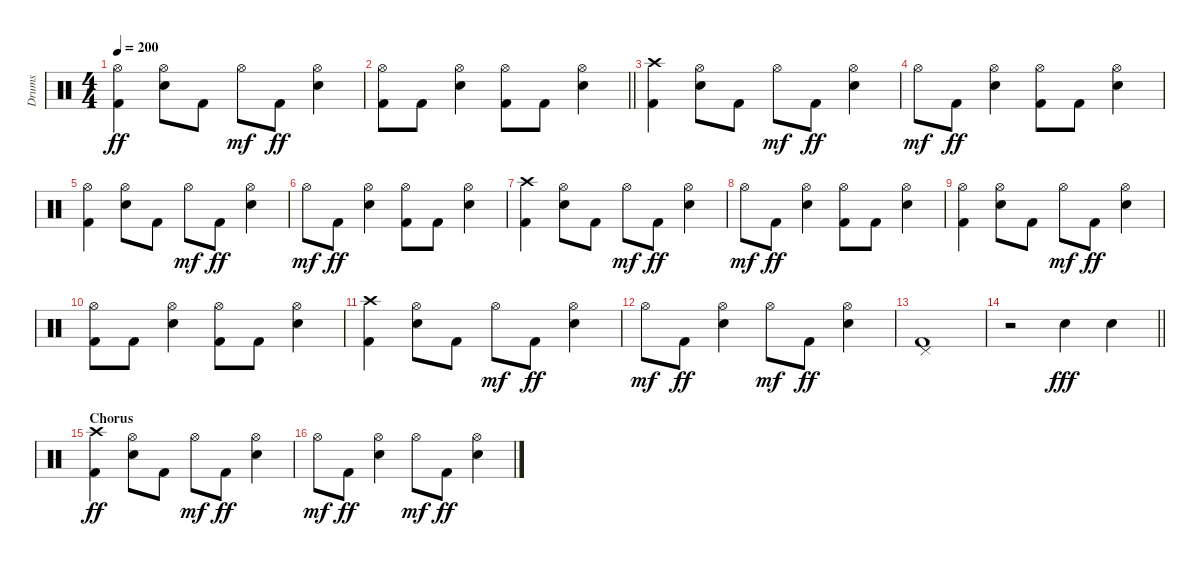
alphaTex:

\track ("Drums" "Drums") {instrument percussion}
\staff {score}
\articulation defaults
\ts (4 4)
\tempo 200
\clef neutral
\ks c
("Hi-Hat (open)" "Kick (hit) 2").4{dy ff} ("Hi-Hat (open)" "Electric Snare (hit)").8 "Kick (hit) 2".8 "Hi-Hat (open)".8{dy mf} "Kick (hit) 2".8{dy ff} ("Hi-Hat (open)" "Electric Snare (hit)").4 |
\barLineRight lightlight
("Hi-Hat (open)" "Kick (hit) 2").8 "Kick (hit) 2".8 ("Hi-Hat (open)" "Electric Snare (hit)").4 ("Hi-Hat (open)" "Kick (hit) 2").8 "Kick (hit) 2".8 ("Hi-Hat (open)" "Electric Snare (hit)").4 |
("Crash high (hit)" "Kick (hit) 2").4 ("Hi-Hat (open)" "Electric Snare (hit)").8 "Kick (hit) 2".8 "Hi-Hat (open)".8{dy mf} "Kick (hit) 2".8{dy ff} ("Hi-Hat (open)" "Electric Snare (hit)").4 |
"Hi-Hat (open)".8{dy mf} "Kick (hit) 2".8{dy ff} ("Hi-Hat (open)" "Electric Snare (hit)").4 ("Hi-Hat (open)" "Kick (hit) 2").8 "Kick (hit) 2".8 ("Hi-Hat (open)" "Electric Snare (hit)").4 |
("Hi-Hat (open)" "Kick (hit) 2").4 ("Hi-Hat (open)" "Electric Snare (hit)").8 "Kick (hit) 2".8 "Hi-Hat (open)".8{dy mf} "Kick (hit) 2".8{dy ff} ("Hi-Hat (open)" "Electric Snare (hit)").4 |
"Hi-Hat (open)".8{dy mf} "Kick (hit) 2".8{dy ff} ("Hi-Hat (open)" "Electric Snare (hit)").4 ("Hi-Hat (open)" "Kick (hit) 2").8 "Kick (hit) 2".8 ("Hi-Hat (open)" "Electric Snare (hit)").4 |
("Crash high (hit)" "Kick (hit) 2").4 ("Hi-Hat (open)" "Electric Snare (hit)").8 "Kick (hit) 2".8 "Hi-Hat (open)".8{dy mf} "Kick (hit) 2".8{dy ff} ("Hi-Hat (open)" "Electric Snare (hit)").4 |
"Hi-Hat (open)".8{dy mf} "Kick (hit) 2".8{dy ff} ("Hi-Hat (open)" "Electric Snare (hit)").4 ("Hi-Hat (open)" "Kick (hit) 2").8 "Kick (hit) 2".8 ("Hi-Hat (open)" "Electric Snare (hit)").4 |
("Hi-Hat (open)" "Kick (hit) 2").4 ("Hi-Hat (open)" "Electric Snare (hit)").8 "Kick (hit) 2".8 "Hi-Hat (open)".8{dy mf} "Kick (hit) 2".8{dy ff} ("Hi-Hat (open)" "Electric Snare (hit)").4 |
("Hi-Hat (open)" "Kick (hit) 2").8 "Kick (hit) 2".8 ("Hi-Hat (open)" "Electric Snare (hit)").4 ("Hi-Hat (open)" "Kick (hit) 2").8 "Kick (hit) 2".8 ("Hi-Hat (open)" "Electric Snare (hit)").4 |
("Crash high (hit)" "Kick (hit) 2").4 ("Hi-Hat (open)" "Electric Snare (hit)").8 "Kick (hit) 2".8 "Hi-Hat (open)".8{dy mf} "Kick (hit) 2".8{dy ff} ("Hi-Hat (open)" "Electric Snare (hit)").4 |
"Hi-Hat (open)".8{dy mf} "Kick (hit) 2".8{dy ff} ("Hi-Hat (open)" "Electric Snare (hit)").4 "Hi-Hat (open)".8{dy mf} "Kick (hit) 2".8{dy ff} ("Hi-Hat (open)" "Electric Snare (hit)").4 |
("Pedal Hi-Hat (hit)" "Kick (hit) 2").1 |
\barLineRight lightlight
r.2 "Electric Snare (hit)".4{dy fff} "Electric Snare (hit)".4 |
\section ("" "Chorus")
("Crash high (hit)" "Kick (hit) 2").4{dy ff} ("Hi-Hat (open)" "Electric Snare (hit)").8 "Kick (hit) 2".8 "Hi-Hat (open)".8{dy mf} "Kick (hit) 2".8{dy ff} ("Hi-Hat (open)" "Electric Snare (hit)").4 |
"Hi-Hat (open)".8{dy mf} "Kick (hit) 2".8{dy ff} ("Hi-Hat (open)" "Electric Snare (hit)").4 "Hi-Hat (open)".8{dy mf} "Kick (hit) 2".8{dy ff} ("Hi-Hat (open)" "Electric Snare (hit)").4
